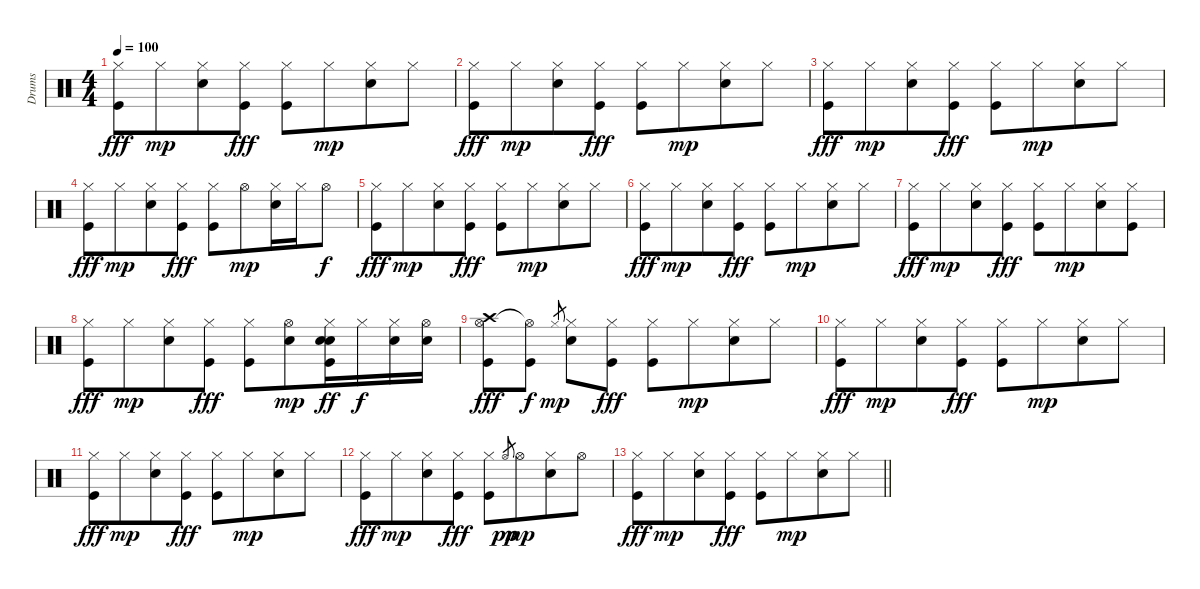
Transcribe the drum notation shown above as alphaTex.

\track ("Drums" "Drums") {instrument percussion}
\staff {score}
\articulation defaults
\ts (4 4)
\tempo 100
\clef neutral
\ks c
("Hi-Hat (closed)" "Kick (hit)").8{dy fff} "Hi-Hat (closed)".8{dy mp beam merge} ("Hi-Hat (closed)" "Snare (hit) 2").8 ("Hi-Hat (closed)" "Kick (hit)").8{dy fff} ("Hi-Hat (closed)" "Kick (hit)").8 "Hi-Hat (closed)".8{dy mp beam merge} ("Hi-Hat (closed)" "Snare (hit) 2").8 "Hi-Hat (closed)".8 |
("Hi-Hat (closed)" "Kick (hit)").8{dy fff} "Hi-Hat (closed)".8{dy mp beam merge} ("Hi-Hat (closed)" "Snare (hit) 2").8 ("Hi-Hat (closed)" "Kick (hit)").8{dy fff} ("Hi-Hat (closed)" "Kick (hit)").8 "Hi-Hat (closed)".8{dy mp beam merge} ("Hi-Hat (closed)" "Snare (hit) 2").8 "Hi-Hat (closed)".8 |
("Hi-Hat (closed)" "Kick (hit)").8{dy fff} "Hi-Hat (closed)".8{dy mp beam merge} ("Hi-Hat (closed)" "Snare (hit) 2").8 ("Hi-Hat (closed)" "Kick (hit)").8{dy fff} ("Hi-Hat (closed)" "Kick (hit)").8 "Hi-Hat (closed)".8{dy mp beam merge} ("Hi-Hat (closed)" "Snare (hit) 2").8 "Hi-Hat (closed)".8 |
("Hi-Hat (closed)" "Kick (hit)").8{dy fff} "Hi-Hat (closed)".8{dy mp beam merge} ("Hi-Hat (closed)" "Snare (hit) 2").8 ("Hi-Hat (closed)" "Kick (hit)").8{dy fff} ("Hi-Hat (closed)" "Kick (hit)").8 "Hi-Hat (open)".8{dy mp beam merge} ("Hi-Hat (closed)" "Snare (hit) 2").16 "Hi-Hat (closed)".16 "Hi-Hat (open)".8{dy f} |
("Hi-Hat (closed)" "Kick (hit)").8{dy fff} "Hi-Hat (closed)".8{dy mp beam merge} ("Hi-Hat (closed)" "Snare (hit) 2").8 ("Hi-Hat (closed)" "Kick (hit)").8{dy fff} ("Hi-Hat (closed)" "Kick (hit)").8 "Hi-Hat (closed)".8{dy mp beam merge} ("Hi-Hat (closed)" "Snare (hit) 2").8 "Hi-Hat (closed)".8 |
("Hi-Hat (closed)" "Kick (hit)").8{dy fff} "Hi-Hat (closed)".8{dy mp beam merge} ("Hi-Hat (closed)" "Snare (hit) 2").8 ("Hi-Hat (closed)" "Kick (hit)").8{dy fff} ("Hi-Hat (closed)" "Kick (hit)").8 "Hi-Hat (closed)".8{dy mp beam merge} ("Hi-Hat (closed)" "Snare (hit) 2").8 "Hi-Hat (closed)".8 |
("Hi-Hat (closed)" "Kick (hit)").8{dy fff} "Hi-Hat (closed)".8{dy mp beam merge} ("Hi-Hat (closed)" "Snare (hit) 2").8 ("Hi-Hat (closed)" "Kick (hit)").8{dy fff} ("Hi-Hat (closed)" "Kick (hit)").8 "Hi-Hat (closed)".8{dy mp beam merge} ("Hi-Hat (closed)" "Snare (hit) 2").8 ("Hi-Hat (closed)" "Kick (hit)").8 |
("Hi-Hat (closed)" "Kick (hit)").8{dy fff} "Hi-Hat (closed)".8{dy mp beam merge} ("Hi-Hat (closed)" "Snare (hit) 2").8 ("Hi-Hat (closed)" "Kick (hit)").8{dy fff} ("Hi-Hat (closed)" "Kick (hit)").8 ("Hi-Hat (open)" "Snare (hit) 2").8{dy mp beam merge} ("Hi-Hat (closed)" "Snare (hit) 2" "Hand Clap (hit)" "Kick (hit)").16{dy ff} "Hi-Hat (closed)".16{dy f} ("Hi-Hat (closed)" "Snare (hit) 2").16 ("Hi-Hat (open)" "Snare (hit) 2").16 |
("Hi-Hat (open)" "Crash high (hit)" "Kick (hit)").8{dy fff} ("Hi-Hat (open)"{t} "Kick (hit)").8{dy f} "Hi-Hat (closed)"{h}.8{gr dy mp beam merge} ("Hi-Hat (closed)" "Snare (hit) 2").8 ("Hi-Hat (closed)" "Kick (hit)").8{dy fff} ("Hi-Hat (closed)" "Kick (hit)").8 "Hi-Hat (closed)".8{dy mp beam merge} ("Hi-Hat (closed)" "Snare (hit) 2").8 "Hi-Hat (closed)".8 |
("Hi-Hat (closed)" "Kick (hit)").8{dy fff} "Hi-Hat (closed)".8{dy mp beam merge} ("Hi-Hat (closed)" "Snare (hit) 2").8 ("Hi-Hat (closed)" "Kick (hit)").8{dy fff} ("Hi-Hat (closed)" "Kick (hit)").8 "Hi-Hat (closed)".8{dy mp beam merge} ("Hi-Hat (closed)" "Snare (hit) 2").8 "Hi-Hat (closed)".8 |
("Hi-Hat (closed)" "Kick (hit)").8{dy fff} "Hi-Hat (closed)".8{dy mp beam merge} ("Hi-Hat (closed)" "Snare (hit) 2").8 ("Hi-Hat (closed)" "Kick (hit)").8{dy fff} ("Hi-Hat (closed)" "Kick (hit)").8 "Hi-Hat (closed)".8{dy mp beam merge} ("Hi-Hat (closed)" "Snare (hit) 2").8 "Hi-Hat (closed)".8 |
("Hi-Hat (closed)" "Kick (hit)").8{dy fff} "Hi-Hat (closed)".8{dy mp beam merge} ("Hi-Hat (closed)" "Snare (hit) 2").8 ("Hi-Hat (closed)" "Kick (hit)").8{dy fff} ("Hi-Hat (closed)" "Kick (hit)").8 "Hi-Hat (open)"{x}.8{gr dy pp} "Hi-Hat (open)".8{dy mp beam merge} ("Hi-Hat (closed)" "Snare (hit) 2").8 "Hi-Hat (open)".8 |
\barLineRight lightlight
("Hi-Hat (closed)" "Kick (hit)").8{dy fff} "Hi-Hat (closed)".8{dy mp beam merge} ("Hi-Hat (closed)" "Snare (hit) 2").8 ("Hi-Hat (closed)" "Kick (hit)").8{dy fff} ("Hi-Hat (closed)" "Kick (hit)").8 "Hi-Hat (closed)".8{dy mp beam merge} ("Hi-Hat (closed)" "Snare (hit) 2").8 "Hi-Hat (closed)".8
